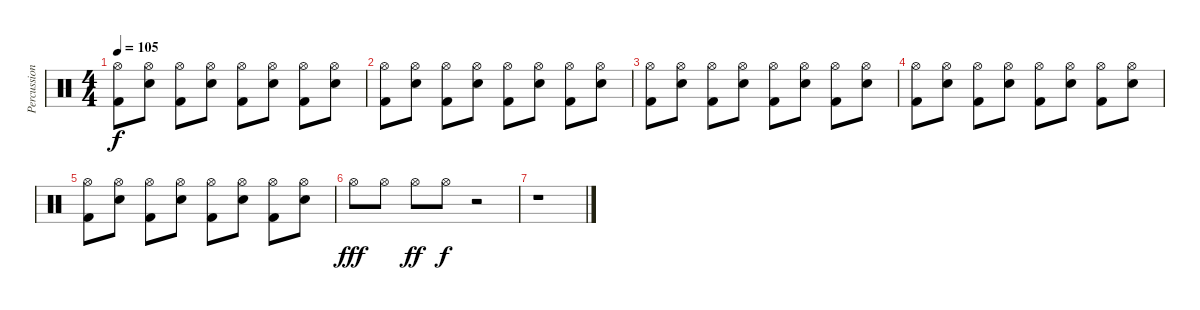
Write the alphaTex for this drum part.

\track ("Percussions" "Percussion") {instrument percussion}
\staff {score}
\articulation defaults
\ts (4 4)
\tempo 105
\clef neutral
\ks c
("Hi-Hat (open)" "Kick (hit) 2").8{dy f} ("Hi-Hat (open)" "Electric Snare (hit)").8 ("Hi-Hat (open)" "Kick (hit) 2").8 ("Hi-Hat (open)" "Electric Snare (hit)").8 ("Hi-Hat (open)" "Kick (hit) 2").8 ("Hi-Hat (open)" "Electric Snare (hit)").8 ("Hi-Hat (open)" "Kick (hit) 2").8 ("Hi-Hat (open)" "Electric Snare (hit)").8 |
("Hi-Hat (open)" "Kick (hit) 2").8 ("Hi-Hat (open)" "Electric Snare (hit)").8 ("Hi-Hat (open)" "Kick (hit) 2").8 ("Hi-Hat (open)" "Electric Snare (hit)").8 ("Hi-Hat (open)" "Kick (hit) 2").8 ("Hi-Hat (open)" "Electric Snare (hit)").8 ("Hi-Hat (open)" "Kick (hit) 2").8 ("Hi-Hat (open)" "Electric Snare (hit)").8 |
("Hi-Hat (open)" "Kick (hit) 2").8 ("Hi-Hat (open)" "Electric Snare (hit)").8 ("Hi-Hat (open)" "Kick (hit) 2").8 ("Hi-Hat (open)" "Electric Snare (hit)").8 ("Hi-Hat (open)" "Kick (hit) 2").8 ("Hi-Hat (open)" "Electric Snare (hit)").8 ("Hi-Hat (open)" "Kick (hit) 2").8 ("Hi-Hat (open)" "Electric Snare (hit)").8 |
("Hi-Hat (open)" "Kick (hit) 2").8 ("Hi-Hat (open)" "Electric Snare (hit)").8 ("Hi-Hat (open)" "Kick (hit) 2").8 ("Hi-Hat (open)" "Electric Snare (hit)").8 ("Hi-Hat (open)" "Kick (hit) 2").8 ("Hi-Hat (open)" "Electric Snare (hit)").8 ("Hi-Hat (open)" "Kick (hit) 2").8 ("Hi-Hat (open)" "Electric Snare (hit)").8 |
("Hi-Hat (open)" "Kick (hit) 2").8 ("Hi-Hat (open)" "Electric Snare (hit)").8 ("Hi-Hat (open)" "Kick (hit) 2").8 ("Hi-Hat (open)" "Electric Snare (hit)").8 ("Hi-Hat (open)" "Kick (hit) 2").8 ("Hi-Hat (open)" "Electric Snare (hit)").8 ("Hi-Hat (open)" "Kick (hit) 2").8 ("Hi-Hat (open)" "Electric Snare (hit)").8 |
"Hi-Hat (open)".8{dy fff} "Hi-Hat (open)".8 "Hi-Hat (open)".8{dy ff} "Hi-Hat (open)".8{dy f} r.2 |
r.1
